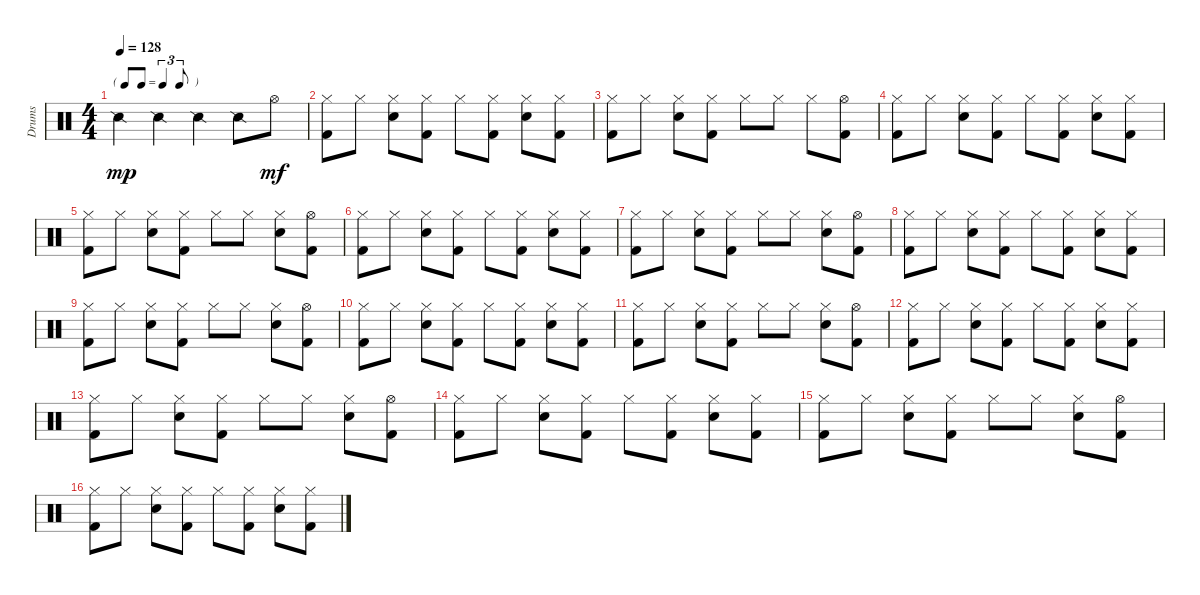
\track ("Drums" "Drums") {instrument percussion}
\staff {score}
\articulation defaults
\ts (4 4)
\tf triplet8th
\tempo 128
\clef neutral
\ks c "Snare (side stick) 2".4{dy mp} "Snare (side stick) 2".4 "Snare (side stick) 2".4 "Snare (side stick) 2".8 "Hi-Hat (open)".8{dy mf}
|
("Hi-Hat (closed)" "Kick (hit) 2").8 "Hi-Hat (closed)".8 ("Hi-Hat (closed)" "Electric Snare (hit)").8 ("Hi-Hat (closed)" "Kick (hit) 2").8 "Hi-Hat (closed)".8 ("Hi-Hat (closed)" "Kick (hit) 2").8 ("Hi-Hat (closed)" "Electric Snare (hit)").8 ("Hi-Hat (closed)" "Kick (hit) 2").8 |
("Hi-Hat (closed)" "Kick (hit) 2").8 "Hi-Hat (closed)".8 ("Hi-Hat (closed)" "Electric Snare (hit)").8 ("Hi-Hat (closed)" "Kick (hit) 2").8 "Hi-Hat (closed)".8 "Hi-Hat (closed)".8 "Hi-Hat (closed)".8 ("Hi-Hat (open)" "Kick (hit) 2").8 |
("Hi-Hat (closed)" "Kick (hit) 2").8 "Hi-Hat (closed)".8 ("Hi-Hat (closed)" "Electric Snare (hit)").8 ("Hi-Hat (closed)" "Kick (hit) 2").8 "Hi-Hat (closed)".8 ("Hi-Hat (closed)" "Kick (hit) 2").8 ("Hi-Hat (closed)" "Electric Snare (hit)").8 ("Hi-Hat (closed)" "Kick (hit) 2").8 |
("Hi-Hat (closed)" "Kick (hit) 2").8 "Hi-Hat (closed)".8 ("Hi-Hat (closed)" "Electric Snare (hit)").8 ("Hi-Hat (closed)" "Kick (hit) 2").8 "Hi-Hat (closed)".8 "Hi-Hat (closed)".8 ("Hi-Hat (closed)" "Electric Snare (hit)").8 ("Hi-Hat (open)" "Kick (hit) 2").8 |
("Hi-Hat (closed)" "Kick (hit) 2").8 "Hi-Hat (closed)".8 ("Hi-Hat (closed)" "Electric Snare (hit)").8 ("Hi-Hat (closed)" "Kick (hit) 2").8 "Hi-Hat (closed)".8 ("Hi-Hat (closed)" "Kick (hit) 2").8 ("Hi-Hat (closed)" "Electric Snare (hit)").8 ("Hi-Hat (closed)" "Kick (hit) 2").8 |
("Hi-Hat (closed)" "Kick (hit) 2").8 "Hi-Hat (closed)".8 ("Hi-Hat (closed)" "Electric Snare (hit)").8 ("Hi-Hat (closed)" "Kick (hit) 2").8 "Hi-Hat (closed)".8 "Hi-Hat (closed)".8 ("Hi-Hat (closed)" "Electric Snare (hit)").8 ("Hi-Hat (open)" "Kick (hit) 2").8 |
("Hi-Hat (closed)" "Kick (hit) 2").8 "Hi-Hat (closed)".8 ("Hi-Hat (closed)" "Electric Snare (hit)").8 ("Hi-Hat (closed)" "Kick (hit) 2").8 "Hi-Hat (closed)".8 ("Hi-Hat (closed)" "Kick (hit) 2").8 ("Hi-Hat (closed)" "Electric Snare (hit)").8 ("Hi-Hat (closed)" "Kick (hit) 2").8 |
("Hi-Hat (closed)" "Kick (hit) 2").8 "Hi-Hat (closed)".8 ("Hi-Hat (closed)" "Electric Snare (hit)").8 ("Hi-Hat (closed)" "Kick (hit) 2").8 "Hi-Hat (closed)".8 "Hi-Hat (closed)".8 ("Hi-Hat (closed)" "Electric Snare (hit)").8 ("Hi-Hat (open)" "Kick (hit) 2").8 |
("Hi-Hat (closed)" "Kick (hit) 2").8 "Hi-Hat (closed)".8 ("Hi-Hat (closed)" "Electric Snare (hit)").8 ("Hi-Hat (closed)" "Kick (hit) 2").8 "Hi-Hat (closed)".8 ("Hi-Hat (closed)" "Kick (hit) 2").8 ("Hi-Hat (closed)" "Electric Snare (hit)").8 ("Hi-Hat (closed)" "Kick (hit) 2").8 |
("Hi-Hat (closed)" "Kick (hit) 2").8 "Hi-Hat (closed)".8 ("Hi-Hat (closed)" "Electric Snare (hit)").8 ("Hi-Hat (closed)" "Kick (hit) 2").8 "Hi-Hat (closed)".8 "Hi-Hat (closed)".8 ("Hi-Hat (closed)" "Electric Snare (hit)").8 ("Hi-Hat (open)" "Kick (hit) 2").8 |
("Hi-Hat (closed)" "Kick (hit) 2").8 "Hi-Hat (closed)".8 ("Hi-Hat (closed)" "Electric Snare (hit)").8 ("Hi-Hat (closed)" "Kick (hit) 2").8 "Hi-Hat (closed)".8 ("Hi-Hat (closed)" "Kick (hit) 2").8 ("Hi-Hat (closed)" "Electric Snare (hit)").8 ("Hi-Hat (closed)" "Kick (hit) 2").8 |
("Hi-Hat (closed)" "Kick (hit) 2").8 "Hi-Hat (closed)".8 ("Hi-Hat (closed)" "Electric Snare (hit)").8 ("Hi-Hat (closed)" "Kick (hit) 2").8 "Hi-Hat (closed)".8 "Hi-Hat (closed)".8 ("Hi-Hat (closed)" "Electric Snare (hit)").8 ("Hi-Hat (open)" "Kick (hit) 2").8 |
("Hi-Hat (closed)" "Kick (hit) 2").8 "Hi-Hat (closed)".8 ("Hi-Hat (closed)" "Electric Snare (hit)").8 ("Hi-Hat (closed)" "Kick (hit) 2").8 "Hi-Hat (closed)".8 ("Hi-Hat (closed)" "Kick (hit) 2").8 ("Hi-Hat (closed)" "Electric Snare (hit)").8 ("Hi-Hat (closed)" "Kick (hit) 2").8 |
("Hi-Hat (closed)" "Kick (hit) 2").8 "Hi-Hat (closed)".8 ("Hi-Hat (closed)" "Electric Snare (hit)").8 ("Hi-Hat (closed)" "Kick (hit) 2").8 "Hi-Hat (closed)".8 "Hi-Hat (closed)".8 ("Hi-Hat (closed)" "Electric Snare (hit)").8 ("Hi-Hat (open)" "Kick (hit) 2").8 |
("Hi-Hat (closed)" "Kick (hit) 2").8 "Hi-Hat (closed)".8 ("Hi-Hat (closed)" "Electric Snare (hit)").8 ("Hi-Hat (closed)" "Kick (hit) 2").8 "Hi-Hat (closed)".8 ("Hi-Hat (closed)" "Kick (hit) 2").8 ("Hi-Hat (closed)" "Electric Snare (hit)").8 ("Hi-Hat (closed)" "Kick (hit) 2").8
